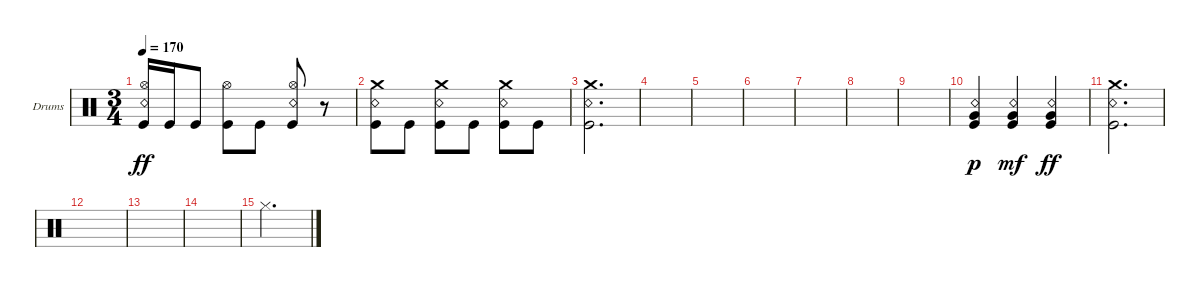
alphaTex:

\bracketExtendMode groupsimilarinstruments
\firstSystemTrackNameOrientation horizontal
\otherSystemsTrackNameOrientation horizontal
\track ("Kaleb - Drums" "Drums") {instrument percussion}
\staff {score}
\articulation defaults
\ts (3 4)
\tempo 170
\clef neutral
\ks c
("Kick (hit)" "Hi-Hat (open)" "Snare (rim shot)").16{dy ff} "Kick (hit)".16 "Kick (hit)".8 ("Kick (hit)" "Hi-Hat (open)").8 "Kick (hit)".8 ("Kick (hit)" "Hi-Hat (open)" "Snare (rim shot)").8 r.8 |
("Kick (hit)" "Crash medium (hit)" "Snare (rim shot)").8 "Kick (hit)".8 ("Kick (hit)" "Crash medium (hit)" "Snare (rim shot)").8 "Kick (hit)".8 ("Kick (hit)" "Crash medium (hit)" "Snare (rim shot)").8 "Kick (hit)".8 |
("Crash medium (hit)" "Kick (hit)" "Snare (rim shot)").2{d} |
|
|
|
|
|
|
("Kick (hit)" "Very Low Tom (hit)" "Snare (rim shot)").4{dy p} ("Snare (rim shot)" "Very Low Tom (hit)" "Kick (hit)").4{dy mf} ("Snare (rim shot)" "Very Low Tom (hit)" "Kick (hit)").4{dy ff} |
("Crash medium (hit)" "Snare (rim shot)" "Kick (hit)").2{d} |
|
|
|
"Hi-Hat (closed)".2{d}
